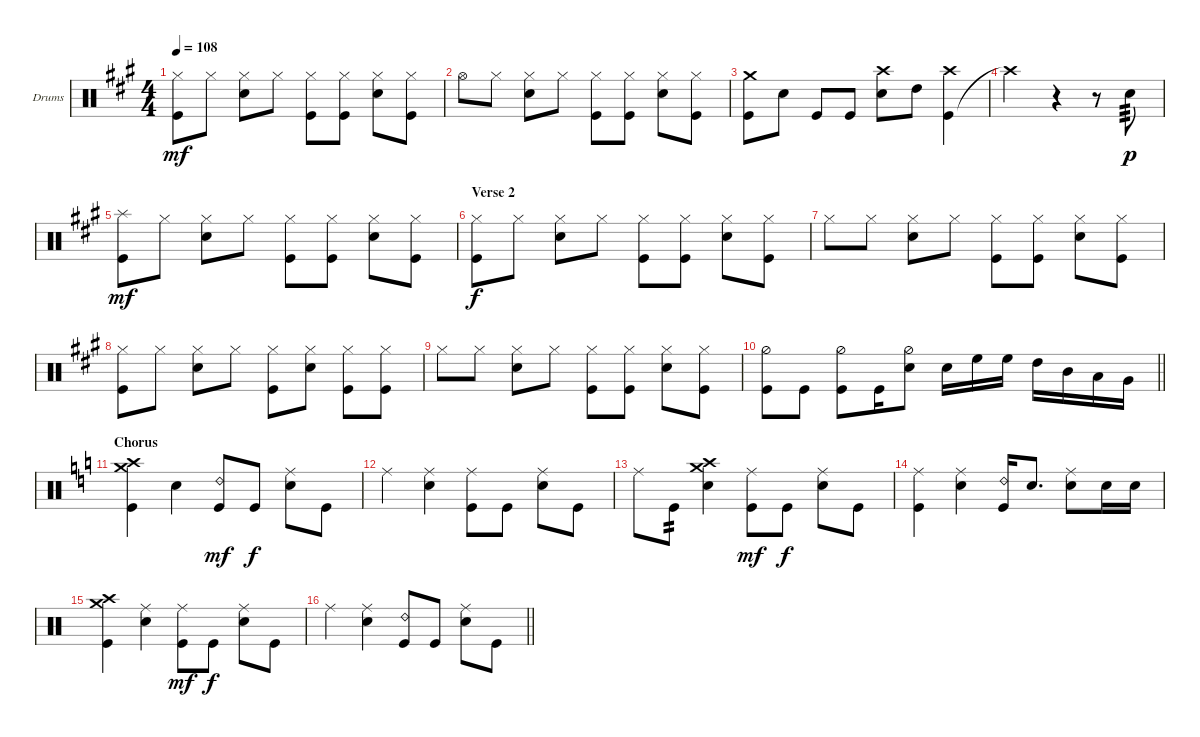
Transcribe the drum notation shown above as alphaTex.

\defaultSystemsLayout 4
\bracketExtendMode groupsimilarinstruments
\firstSystemTrackNameOrientation horizontal
\otherSystemsTrackNameOrientation horizontal
\track ("Drums" "Drums") {instrument percussion}
\staff {score}
\articulation defaults
\ts (4 4)
\tempo 108
\clef neutral
\ks a
("Kick (hit)" "Hi-Hat (closed)").8{dy mf} "Hi-Hat (closed)".8 ("Snare (hit) 2" "Hi-Hat (closed)").8 "Hi-Hat (closed)".8 ("Kick (hit)" "Hi-Hat (closed)").8 ("Kick (hit)" "Hi-Hat (closed)").8 ("Snare (hit) 2" "Hi-Hat (closed)").8 ("Kick (hit)" "Hi-Hat (closed)").8 |
"Hi-Hat (open)".8 "Hi-Hat (closed)".8 ("Snare (hit) 2" "Hi-Hat (closed)").8 "Hi-Hat (closed)".8 ("Kick (hit)" "Hi-Hat (closed)").8 ("Kick (hit)" "Hi-Hat (closed)").8 ("Snare (hit) 2" "Hi-Hat (closed)").8 ("Kick (hit)" "Hi-Hat (closed)").8 |
("Kick (hit)" "Crash medium (hit)").8 "Snare (hit) 2".8 "Kick (hit)".8 "Kick (hit)".8 ("Snare (hit) 2" "Crash high (hit)").8 "High Tom (hit)".8 ("Kick (hit)" "Crash high (hit)").4 |
"Crash high (hit)"{t}.2 r.4 r.8 "Snare (hit) 2".8{tp 3 dy p} |
("Splash (hit)" "Kick (hit)").8{dy mf} "Hi-Hat (closed)".8 ("Snare (hit) 2" "Hi-Hat (closed)").8 "Hi-Hat (closed)".8 ("Kick (hit)" "Hi-Hat (closed)").8 ("Kick (hit)" "Hi-Hat (closed)").8 ("Snare (hit) 2" "Hi-Hat (closed)").8 ("Kick (hit)" "Hi-Hat (closed)").8 |
\section ("" "Verse 2")
("Kick (hit)" "Hi-Hat (closed)").8{dy f} "Hi-Hat (closed)".8 ("Snare (hit) 2" "Hi-Hat (closed)").8 "Hi-Hat (closed)".8 ("Kick (hit)" "Hi-Hat (closed)").8 ("Kick (hit)" "Hi-Hat (closed)").8 ("Snare (hit) 2" "Hi-Hat (closed)").8 ("Kick (hit)" "Hi-Hat (closed)").8 |
"Hi-Hat (closed)".8 "Hi-Hat (closed)".8 ("Snare (hit) 2" "Hi-Hat (closed)").8 "Hi-Hat (closed)".8 ("Kick (hit)" "Hi-Hat (closed)").8 ("Kick (hit)" "Hi-Hat (closed)").8 ("Snare (hit) 2" "Hi-Hat (closed)").8 ("Kick (hit)" "Hi-Hat (closed)").8 |
("Kick (hit)" "Hi-Hat (closed)").8 "Hi-Hat (closed)".8 ("Snare (hit) 2" "Hi-Hat (closed)").8 "Hi-Hat (closed)".8 ("Kick (hit)" "Hi-Hat (closed)").8 ("Hi-Hat (closed)" "Snare (hit) 2").8 ("Hi-Hat (closed)" "Kick (hit)").8 ("Kick (hit)" "Hi-Hat (closed)").8 |
"Hi-Hat (closed)".8 "Hi-Hat (closed)".8 ("Snare (hit) 2" "Hi-Hat (closed)").8 "Hi-Hat (closed)".8 ("Kick (hit)" "Hi-Hat (closed)").8 ("Kick (hit)" "Hi-Hat (closed)").8 ("Snare (hit) 2" "Hi-Hat (closed)").8 ("Kick (hit)" "Hi-Hat (closed)").8 |
\barLineRight lightlight
("Kick (hit)" "Hi-Hat (half)").8 "Kick (hit)".8 ("Kick (hit)" "Hi-Hat (half)").8 "Kick (hit)".16 ("Snare (hit) 2" "Hi-Hat (half)").8 "Snare (hit) 2".16 "High Floor Tom (hit)".16 "High Floor Tom (hit)".16 "High Tom (hit)".16 "Mid Tom (hit)".16 "Low Tom (hit)".16 "Very Low Tom (hit)".16 |
\section ("" "Chorus")
\ks c
("Kick (hit)" "Crash high (hit)" "Crash medium (hit)").4 "Snare (hit) 2".4 ("Kick (hit)" "Ride (bell) 2").8{dy mf} "Kick (hit)".8{dy f} ("Snare (hit) 2" "Ride (middle)").8 "Kick (hit)".8 |
"Ride (middle)".4 ("Snare (hit) 2" "Ride (middle)").4 ("Kick (hit)" "Ride (middle)").8 "Kick (hit)".8 ("Snare (hit) 2" "Ride (middle)").8 "Kick (hit)".8 |
"Ride (middle)".8 "Kick (hit)".8{tp 2} ("Snare (hit) 2" "Crash medium (hit)" "Crash high (hit)").4 ("Kick (hit)" "Ride (middle)").8{dy mf} "Kick (hit)".8{dy f} ("Snare (hit) 2" "Ride (middle)").8 "Kick (hit)".8 |
("Kick (hit)" "Ride (middle)").4 ("Snare (hit) 2" "Ride (middle)").4 ("Kick (hit)" "Ride (bell) 2").16 "Snare (hit) 2".8{d} ("Snare (hit) 2" "Ride (middle)").8 "Snare (hit) 2".16 "Snare (hit) 2".16 |
("Kick (hit)" "Crash high (hit)" "Crash medium (hit)").4 ("Snare (hit) 2" "Ride (middle)").4 ("Kick (hit)" "Ride (middle)").8{dy mf} "Kick (hit)".8{dy f} ("Snare (hit) 2" "Ride (middle)").8 "Kick (hit)".8 |
\barLineRight lightlight "Ride (middle)".4
("Snare (hit) 2" "Ride (middle)").4 ("Kick (hit)" "Ride (bell) 2").8 "Kick (hit)".8 ("Snare (hit) 2" "Ride (middle)").8 "Kick (hit)".8
